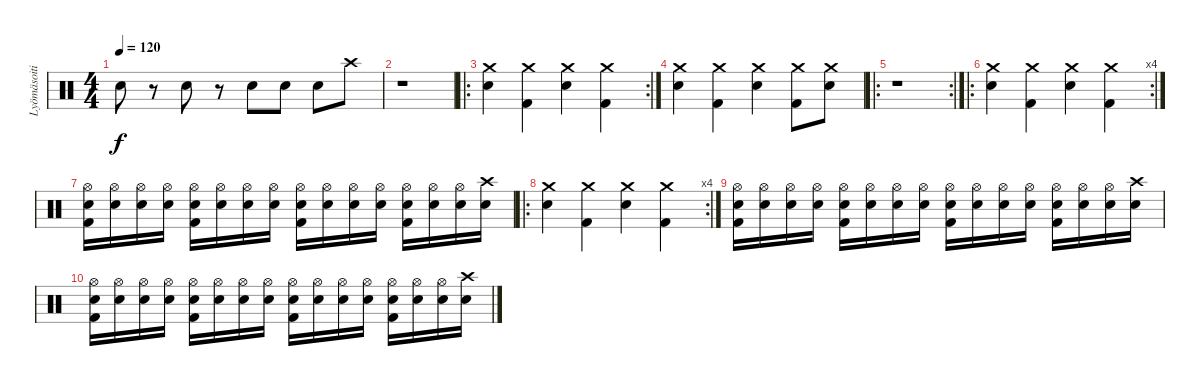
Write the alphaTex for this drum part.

\track ("Lyömäsoitin" "Lyömäsoiti") {instrument percussion}
\staff {score}
\articulation defaults
\ts (4 4)
\tempo 120
\clef neutral
\ks c "Snare (hit) 2".8{dy f}
r.8 "Snare (hit) 2".8 r.8 "Snare (hit) 2".8 "Snare (hit) 2".8 "Snare (hit) 2".8 "Crash high (hit)".8 |
r.1 |
\ro
\rc 2
("Crash medium (hit)" "Snare (hit) 2").4 ("Crash medium (hit)" "Kick (hit) 2").4 ("Crash medium (hit)" "Snare (hit) 2").4 ("Crash medium (hit)" "Kick (hit) 2").4 |
("Crash medium (hit)" "Snare (hit) 2").4 ("Crash medium (hit)" "Kick (hit) 2").4 ("Crash medium (hit)" "Snare (hit) 2").4 ("Crash medium (hit)" "Kick (hit) 2").8 ("Crash medium (hit)" "Snare (hit) 2").8 |
\ro
\rc 2
r.1 |
\ro
\rc 4
("Crash medium (hit)" "Snare (hit) 2").4 ("Crash medium (hit)" "Kick (hit) 2").4 ("Crash medium (hit)" "Snare (hit) 2").4 ("Crash medium (hit)" "Kick (hit) 2").4 |
("Snare (hit) 2" "Kick (hit) 2" "Hi-Hat (open)").16 ("Snare (hit) 2" "Hi-Hat (open)").16 ("Snare (hit) 2" "Hi-Hat (open)").16 ("Snare (hit) 2" "Hi-Hat (open)").16 ("Snare (hit) 2" "Kick (hit) 2" "Hi-Hat (open)").16 ("Snare (hit) 2" "Hi-Hat (open)").16 ("Snare (hit) 2" "Hi-Hat (open)").16 ("Snare (hit) 2" "Hi-Hat (open)").16 ("Snare (hit) 2" "Kick (hit) 2" "Hi-Hat (open)").16 ("Snare (hit) 2" "Hi-Hat (open)").16 ("Snare (hit) 2" "Hi-Hat (open)").16 ("Snare (hit) 2" "Hi-Hat (open)").16 ("Snare (hit) 2" "Kick (hit) 2" "Hi-Hat (open)").16 ("Snare (hit) 2" "Hi-Hat (open)").16 ("Snare (hit) 2" "Hi-Hat (open)").16 ("Snare (hit) 2" "Crash high (hit)").16 |
\ro
\rc 4
("Crash medium (hit)" "Snare (hit) 2").4 ("Crash medium (hit)" "Kick (hit) 2").4 ("Crash medium (hit)" "Snare (hit) 2").4 ("Crash medium (hit)" "Kick (hit) 2").4 |
("Snare (hit) 2" "Kick (hit) 2" "Hi-Hat (open)").16 ("Snare (hit) 2" "Hi-Hat (open)").16 ("Snare (hit) 2" "Hi-Hat (open)").16 ("Snare (hit) 2" "Hi-Hat (open)").16 ("Snare (hit) 2" "Kick (hit) 2" "Hi-Hat (open)").16 ("Snare (hit) 2" "Hi-Hat (open)").16 ("Snare (hit) 2" "Hi-Hat (open)").16 ("Snare (hit) 2" "Hi-Hat (open)").16 ("Snare (hit) 2" "Kick (hit) 2" "Hi-Hat (open)").16 ("Snare (hit) 2" "Hi-Hat (open)").16 ("Snare (hit) 2" "Hi-Hat (open)").16 ("Snare (hit) 2" "Hi-Hat (open)").16 ("Snare (hit) 2" "Kick (hit) 2" "Hi-Hat (open)").16 ("Snare (hit) 2" "Hi-Hat (open)").16 ("Snare (hit) 2" "Hi-Hat (open)").16 ("Snare (hit) 2" "Crash high (hit)").16 |
("Snare (hit) 2" "Kick (hit) 2" "Hi-Hat (open)").16 ("Snare (hit) 2" "Hi-Hat (open)").16 ("Snare (hit) 2" "Hi-Hat (open)").16 ("Snare (hit) 2" "Hi-Hat (open)").16 ("Snare (hit) 2" "Kick (hit) 2" "Hi-Hat (open)").16 ("Snare (hit) 2" "Hi-Hat (open)").16 ("Snare (hit) 2" "Hi-Hat (open)").16 ("Snare (hit) 2" "Hi-Hat (open)").16 ("Snare (hit) 2" "Kick (hit) 2" "Hi-Hat (open)").16 ("Snare (hit) 2" "Hi-Hat (open)").16 ("Snare (hit) 2" "Hi-Hat (open)").16 ("Snare (hit) 2" "Hi-Hat (open)").16 ("Snare (hit) 2" "Kick (hit) 2" "Hi-Hat (open)").16 ("Snare (hit) 2" "Hi-Hat (open)").16 ("Snare (hit) 2" "Hi-Hat (open)").16 ("Snare (hit) 2" "Crash high (hit)").16
